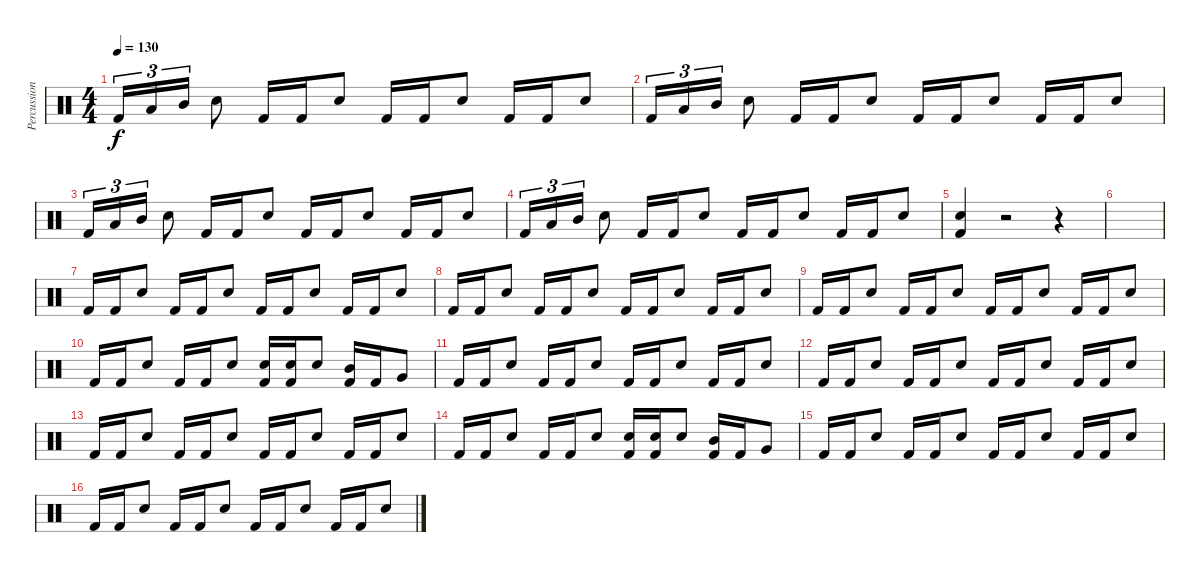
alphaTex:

\track ("Percussion" "Percussion") {instrument percussion}
\staff {score}
\articulation defaults
\ts (4 4)
\tempo 130
\clef neutral
\ks c "Kick (hit) 2".16{tu (3 2) dy f} "Low Tom (hit)".16{tu (3 2)} "Mid Tom (hit)".16{tu (3 2)} "Snare (hit) 2".8 "Kick (hit) 2".16 "Kick (hit) 2".16 "Snare (hit) 2".8 "Kick (hit) 2".16 "Kick (hit) 2".16 "Snare (hit) 2".8 "Kick (hit) 2".16 "Kick (hit) 2".16 "Snare (hit) 2".8
|
"Kick (hit) 2".16{tu (3 2)} "Low Tom (hit)".16{tu (3 2)} "Mid Tom (hit)".16{tu (3 2)} "Snare (hit) 2".8 "Kick (hit) 2".16 "Kick (hit) 2".16 "Snare (hit) 2".8 "Kick (hit) 2".16 "Kick (hit) 2".16 "Snare (hit) 2".8 "Kick (hit) 2".16 "Kick (hit) 2".16 "Snare (hit) 2".8 |
"Kick (hit) 2".16{tu (3 2)} "Low Tom (hit)".16{tu (3 2)} "Mid Tom (hit)".16{tu (3 2)} "Snare (hit) 2".8 "Kick (hit) 2".16 "Kick (hit) 2".16 "Snare (hit) 2".8 "Kick (hit) 2".16 "Kick (hit) 2".16 "Snare (hit) 2".8 "Kick (hit) 2".16 "Kick (hit) 2".16 "Snare (hit) 2".8 |
"Kick (hit) 2".16{tu (3 2)} "Low Tom (hit)".16{tu (3 2)} "Mid Tom (hit)".16{tu (3 2)} "Snare (hit) 2".8 "Kick (hit) 2".16 "Kick (hit) 2".16 "Snare (hit) 2".8 "Kick (hit) 2".16 "Kick (hit) 2".16 "Snare (hit) 2".8 "Kick (hit) 2".16 "Kick (hit) 2".16 "Snare (hit) 2".8 |
("Snare (hit) 2" "Kick (hit) 2").4 r.2 r.4 |
|
"Kick (hit) 2".16 "Kick (hit) 2".16 "Snare (hit) 2".8 "Kick (hit) 2".16 "Kick (hit) 2".16 "Snare (hit) 2".8 "Kick (hit) 2".16 "Kick (hit) 2".16 "Snare (hit) 2".8 "Kick (hit) 2".16 "Kick (hit) 2".16 "Snare (hit) 2".8 |
"Kick (hit) 2".16 "Kick (hit) 2".16 "Snare (hit) 2".8 "Kick (hit) 2".16 "Kick (hit) 2".16 "Snare (hit) 2".8 "Kick (hit) 2".16 "Kick (hit) 2".16 "Snare (hit) 2".8 "Kick (hit) 2".16 "Kick (hit) 2".16 "Snare (hit) 2".8 |
"Kick (hit) 2".16 "Kick (hit) 2".16 "Snare (hit) 2".8 "Kick (hit) 2".16 "Kick (hit) 2".16 "Snare (hit) 2".8 "Kick (hit) 2".16 "Kick (hit) 2".16 "Snare (hit) 2".8 "Kick (hit) 2".16 "Kick (hit) 2".16 "Snare (hit) 2".8 |
"Kick (hit) 2".16 "Kick (hit) 2".16 "Snare (hit) 2".8 "Kick (hit) 2".16 "Kick (hit) 2".16 "Snare (hit) 2".8 ("Snare (hit) 2" "Kick (hit) 2").16 ("Snare (hit) 2" "Kick (hit) 2").16 "Snare (hit) 2".8 ("Mid Tom (hit)" "Kick (hit) 2").16 "Kick (hit) 2".16 "Very Low Tom (hit)".8 |
"Kick (hit) 2".16 "Kick (hit) 2".16 "Snare (hit) 2".8 "Kick (hit) 2".16 "Kick (hit) 2".16 "Snare (hit) 2".8 "Kick (hit) 2".16 "Kick (hit) 2".16 "Snare (hit) 2".8 "Kick (hit) 2".16 "Kick (hit) 2".16 "Snare (hit) 2".8 |
"Kick (hit) 2".16 "Kick (hit) 2".16 "Snare (hit) 2".8 "Kick (hit) 2".16 "Kick (hit) 2".16 "Snare (hit) 2".8 "Kick (hit) 2".16 "Kick (hit) 2".16 "Snare (hit) 2".8 "Kick (hit) 2".16 "Kick (hit) 2".16 "Snare (hit) 2".8 |
"Kick (hit) 2".16 "Kick (hit) 2".16 "Snare (hit) 2".8 "Kick (hit) 2".16 "Kick (hit) 2".16 "Snare (hit) 2".8 "Kick (hit) 2".16 "Kick (hit) 2".16 "Snare (hit) 2".8 "Kick (hit) 2".16 "Kick (hit) 2".16 "Snare (hit) 2".8 |
"Kick (hit) 2".16 "Kick (hit) 2".16 "Snare (hit) 2".8 "Kick (hit) 2".16 "Kick (hit) 2".16 "Snare (hit) 2".8 ("Snare (hit) 2" "Kick (hit) 2").16 ("Snare (hit) 2" "Kick (hit) 2").16 "Snare (hit) 2".8 ("Mid Tom (hit)" "Kick (hit) 2").16 "Kick (hit) 2".16 "Very Low Tom (hit)".8 |
"Kick (hit) 2".16 "Kick (hit) 2".16 "Snare (hit) 2".8 "Kick (hit) 2".16 "Kick (hit) 2".16 "Snare (hit) 2".8 "Kick (hit) 2".16 "Kick (hit) 2".16 "Snare (hit) 2".8 "Kick (hit) 2".16 "Kick (hit) 2".16 "Snare (hit) 2".8 |
"Kick (hit) 2".16 "Kick (hit) 2".16 "Snare (hit) 2".8 "Kick (hit) 2".16 "Kick (hit) 2".16 "Snare (hit) 2".8 "Kick (hit) 2".16 "Kick (hit) 2".16 "Snare (hit) 2".8 "Kick (hit) 2".16 "Kick (hit) 2".16 "Snare (hit) 2".8
